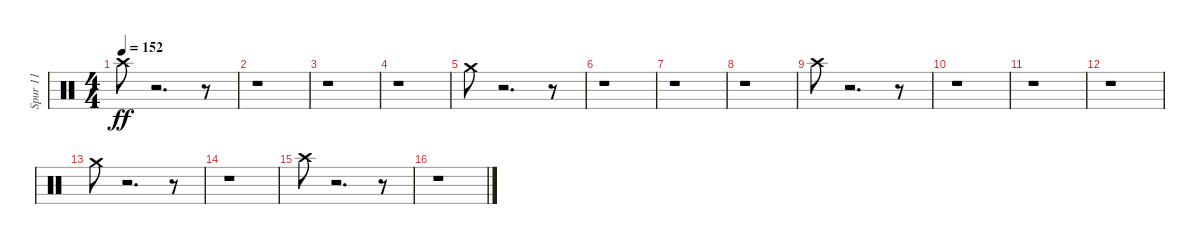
\track ("Spur 11" "Spur 11") {instrument percussion}
\staff {score}
\articulation defaults
\ts (4 4)
\tempo 152
\clef neutral
\ks c "Crash high (hit)".8{dy ff}
r.2{d} r.8 |
r.1 |
r.1 |
r.1 |
"Crash medium (hit)".8 r.2{d} r.8 |
r.1 |
r.1 |
r.1 |
"Crash high (hit)".8 r.2{d} r.8 |
r.1 |
r.1 |
r.1 |
"Crash medium (hit)".8 r.2{d} r.8 |
r.1 |
"Crash high (hit)".8 r.2{d} r.8 |
r.1
